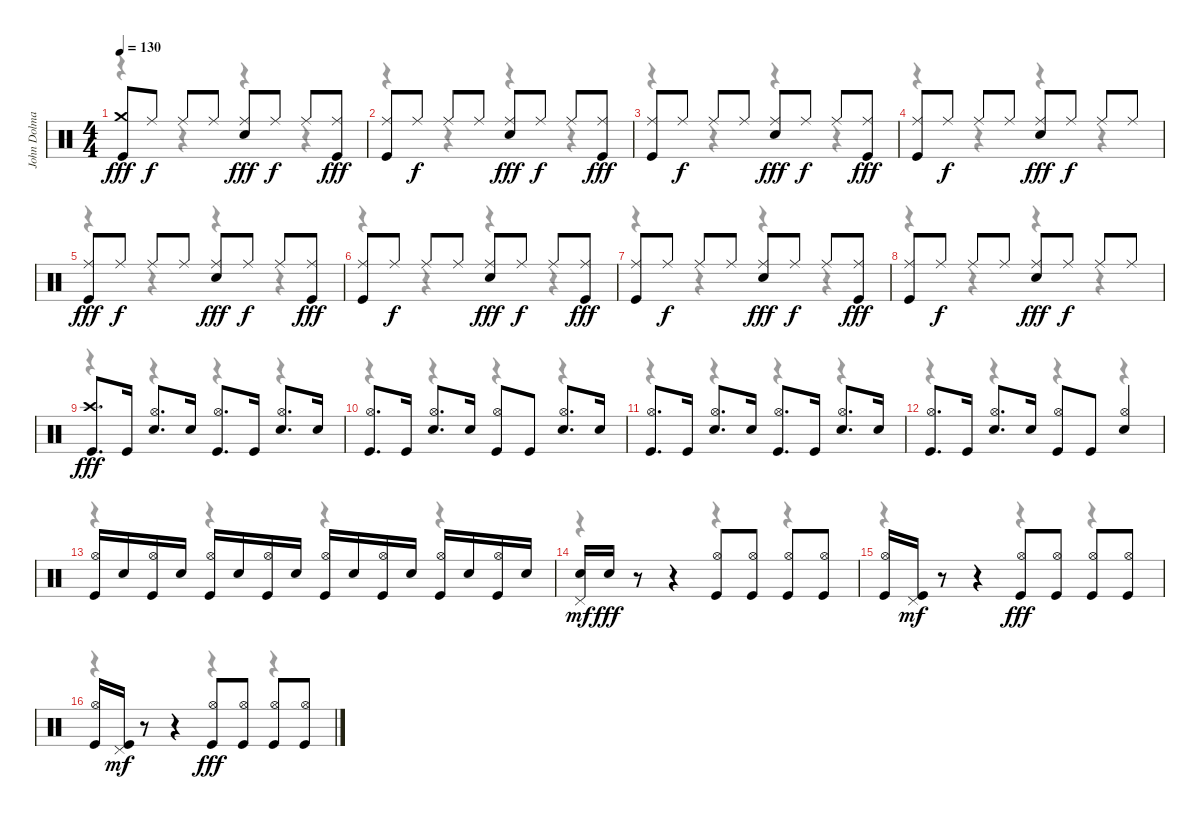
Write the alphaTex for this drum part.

\track ("John Dolmayan" "John Dolma") {instrument percussion}
\staff {score}
\articulation defaults
\voice
\ts (4 4)
\tempo 130
\clef neutral
\ks c
("Crash medium (hit)" "Kick (hit)").8{dy fff} "Ride (middle)".8{dy f} "Ride (middle)".8 "Ride (middle)".8 ("Ride (middle)" "Snare (hit) 2").8{dy fff} "Ride (middle)".8{dy f} "Ride (middle)".8 ("Ride (middle)" "Kick (hit)").8{dy fff} |
("Ride (middle)" "Kick (hit)").8 "Ride (middle)".8{dy f} "Ride (middle)".8 "Ride (middle)".8 ("Ride (middle)" "Snare (hit) 2").8{dy fff} "Ride (middle)".8{dy f} "Ride (middle)".8 ("Ride (middle)" "Kick (hit)").8{dy fff} |
("Ride (middle)" "Kick (hit)").8 "Ride (middle)".8{dy f} "Ride (middle)".8 "Ride (middle)".8 ("Ride (middle)" "Snare (hit) 2").8{dy fff} "Ride (middle)".8{dy f} "Ride (middle)".8 ("Ride (middle)" "Kick (hit)").8{dy fff} |
("Ride (middle)" "Kick (hit)").8 "Ride (middle)".8{dy f} "Ride (middle)".8 "Ride (middle)".8 ("Ride (middle)" "Snare (hit) 2").8{dy fff} "Ride (middle)".8{dy f} "Ride (middle)".8 "Ride (middle)".8 |
("Ride (middle)" "Kick (hit)").8{dy fff} "Ride (middle)".8{dy f} "Ride (middle)".8 "Ride (middle)".8 ("Ride (middle)" "Snare (hit) 2").8{dy fff} "Ride (middle)".8{dy f} "Ride (middle)".8 ("Ride (middle)" "Kick (hit)").8{dy fff} |
("Ride (middle)" "Kick (hit)").8 "Ride (middle)".8{dy f} "Ride (middle)".8 "Ride (middle)".8 ("Ride (middle)" "Snare (hit) 2").8{dy fff} "Ride (middle)".8{dy f} "Ride (middle)".8 ("Ride (middle)" "Kick (hit)").8{dy fff} |
("Ride (middle)" "Kick (hit)").8 "Ride (middle)".8{dy f} "Ride (middle)".8 "Ride (middle)".8 ("Ride (middle)" "Snare (hit) 2").8{dy fff} "Ride (middle)".8{dy f} "Ride (middle)".8 ("Ride (middle)" "Kick (hit)").8{dy fff} |
("Ride (middle)" "Kick (hit)").8 "Ride (middle)".8{dy f} "Ride (middle)".8 "Ride (middle)".8 ("Ride (middle)" "Snare (hit) 2").8{dy fff} "Ride (middle)".8{dy f} "Ride (middle)".8 "Ride (middle)".8 |
("Crash high (hit)" "Kick (hit)").8{d dy fff} "Kick (hit)".16 ("Hi-Hat (open)" "Snare (hit) 2").8{d} "Snare (hit) 2".16 ("Hi-Hat (open)" "Kick (hit)").8{d} "Kick (hit)".16 ("Hi-Hat (open)" "Snare (hit) 2").8{d} "Snare (hit) 2".16 |
("Hi-Hat (open)" "Kick (hit)").8{d} "Kick (hit)".16 ("Hi-Hat (open)" "Snare (hit) 2").8{d} "Snare (hit) 2".16 ("Hi-Hat (open)" "Kick (hit)").8 "Kick (hit)".8 ("Hi-Hat (open)" "Snare (hit) 2").8{d} "Snare (hit) 2".16 |
("Hi-Hat (open)" "Kick (hit)").8{d} "Kick (hit)".16 ("Hi-Hat (open)" "Snare (hit) 2").8{d} "Snare (hit) 2".16 ("Hi-Hat (open)" "Kick (hit)").8{d} "Kick (hit)".16 ("Hi-Hat (open)" "Snare (hit) 2").8{d} "Snare (hit) 2".16 |
("Hi-Hat (open)" "Kick (hit)").8{d} "Kick (hit)".16 ("Hi-Hat (open)" "Snare (hit) 2").8{d} "Snare (hit) 2".16 ("Hi-Hat (open)" "Kick (hit)").8 "Kick (hit)".8 ("Hi-Hat (open)" "Snare (hit) 2").4 |
("Hi-Hat (open)" "Kick (hit)").16 "Snare (hit) 2".16 ("Hi-Hat (open)" "Kick (hit)").16 "Snare (hit) 2".16 ("Hi-Hat (open)" "Kick (hit)").16 "Snare (hit) 2".16 ("Hi-Hat (open)" "Kick (hit)").16 "Snare (hit) 2".16 ("Hi-Hat (open)" "Kick (hit)").16 "Snare (hit) 2".16 ("Hi-Hat (open)" "Kick (hit)").16 "Snare (hit) 2".16 ("Hi-Hat (open)" "Kick (hit)").16 "Snare (hit) 2".16 ("Hi-Hat (open)" "Kick (hit)").16 "Snare (hit) 2".16 |
("Snare (hit) 2" "Pedal Hi-Hat (hit)").16{dy mf} "Snare (hit) 2".16{dy fff} r.8 r.4 ("Hi-Hat (open)" "Kick (hit)").8 ("Hi-Hat (open)" "Kick (hit)").8 ("Hi-Hat (open)" "Kick (hit)").8 ("Hi-Hat (open)" "Kick (hit)").8 |
("Hi-Hat (open)" "Kick (hit)").16 ("Kick (hit)" "Pedal Hi-Hat (hit)").16{dy mf} r.8 r.4 ("Hi-Hat (open)" "Kick (hit)").8{dy fff} ("Hi-Hat (open)" "Kick (hit)").8 ("Hi-Hat (open)" "Kick (hit)").8 ("Hi-Hat (open)" "Kick (hit)").8 |
("Hi-Hat (open)" "Kick (hit)").16 ("Kick (hit)" "Pedal Hi-Hat (hit)").16{dy mf} r.8 r.4 ("Hi-Hat (open)" "Kick (hit)").8{dy fff} ("Hi-Hat (open)" "Kick (hit)").8 ("Hi-Hat (open)" "Kick (hit)").8 ("Hi-Hat (open)" "Kick (hit)").8
\voice
\clef neutral
\ottava regular
\simile none
\ks c
r.4{dy f} r.4 r.4 r.4 |
r.4 r.4 r.4 r.4 |
r.4 r.4 r.4 r.4 |
r.4 r.4 r.4 r.4 |
r.4 r.4 r.4 r.4 |
r.4 r.4 r.4 r.4 |
r.4 r.4 r.4 r.4 |
r.4 r.4 r.4 r.4 |
r.4 r.4 r.4 r.4 |
r.4 r.4 r.4 r.4 |
r.4 r.4 r.4 r.4 |
r.4 r.4 r.4 r.4 |
r.4 r.4 r.4 r.4 |
r.4 r.4 r.4 r.4 |
r.4 r.4 r.4 r.4 |
r.4 r.4 r.4 r.4
